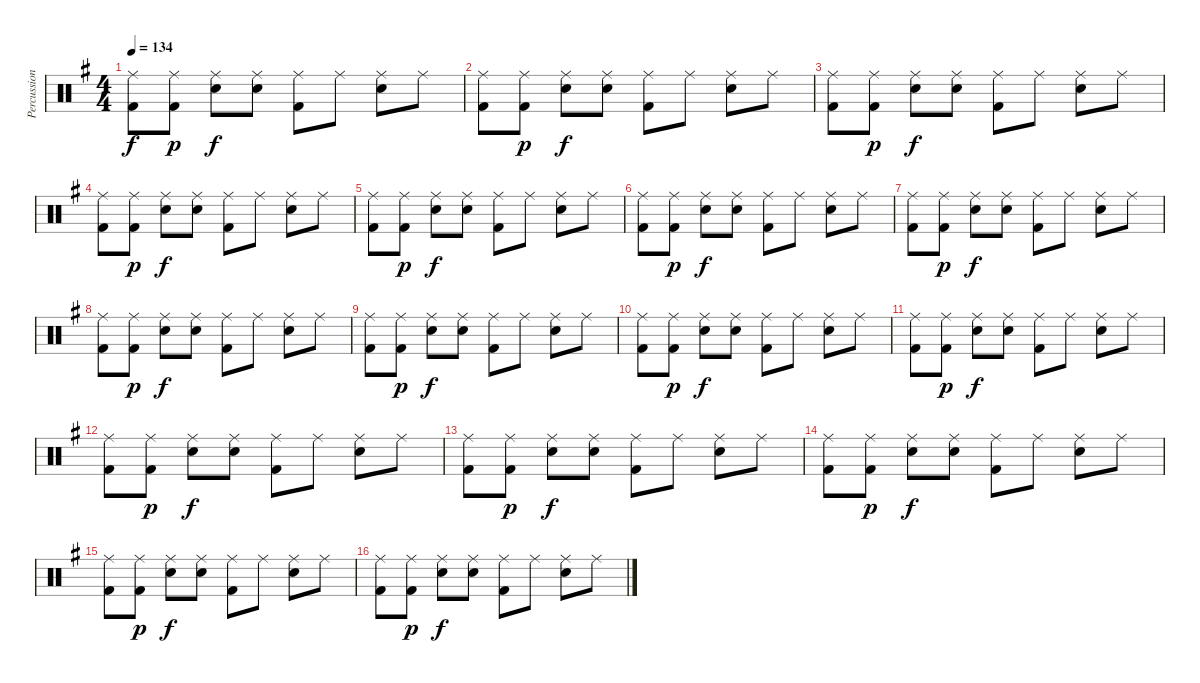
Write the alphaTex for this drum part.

\track ("Percussions" "Percussion") {instrument percussion}
\staff {score}
\articulation defaults
\ts (4 4)
\tempo 134
\clef neutral
\ks g
("Ride (middle)" "Kick (hit) 2").8{dy f} ("Ride (middle)" "Kick (hit) 2").8{dy p} ("Ride (middle)" "Snare (hit) 2").8{dy f} ("Ride (middle)" "Snare (hit) 2").8 ("Ride (middle)" "Kick (hit) 2").8 "Ride (middle)".8 ("Ride (middle)" "Snare (hit) 2").8 "Ride (middle)".8 |
("Ride (middle)" "Kick (hit) 2").8 ("Ride (middle)" "Kick (hit) 2").8{dy p} ("Ride (middle)" "Snare (hit) 2").8{dy f} ("Ride (middle)" "Snare (hit) 2").8 ("Ride (middle)" "Kick (hit) 2").8 "Ride (middle)".8 ("Ride (middle)" "Snare (hit) 2").8 "Ride (middle)".8 |
("Ride (middle)" "Kick (hit) 2").8 ("Ride (middle)" "Kick (hit) 2").8{dy p} ("Ride (middle)" "Snare (hit) 2").8{dy f} ("Ride (middle)" "Snare (hit) 2").8 ("Ride (middle)" "Kick (hit) 2").8 "Ride (middle)".8 ("Ride (middle)" "Snare (hit) 2").8 "Ride (middle)".8 |
("Ride (middle)" "Kick (hit) 2").8 ("Ride (middle)" "Kick (hit) 2").8{dy p} ("Ride (middle)" "Snare (hit) 2").8{dy f} ("Ride (middle)" "Snare (hit) 2").8 ("Ride (middle)" "Kick (hit) 2").8 "Ride (middle)".8 ("Ride (middle)" "Snare (hit) 2").8 "Ride (middle)".8 |
("Ride (middle)" "Kick (hit) 2").8 ("Ride (middle)" "Kick (hit) 2").8{dy p} ("Ride (middle)" "Snare (hit) 2").8{dy f} ("Ride (middle)" "Snare (hit) 2").8 ("Ride (middle)" "Kick (hit) 2").8 "Ride (middle)".8 ("Ride (middle)" "Snare (hit) 2").8 "Ride (middle)".8 |
("Ride (middle)" "Kick (hit) 2").8 ("Ride (middle)" "Kick (hit) 2").8{dy p} ("Ride (middle)" "Snare (hit) 2").8{dy f} ("Ride (middle)" "Snare (hit) 2").8 ("Ride (middle)" "Kick (hit) 2").8 "Ride (middle)".8 ("Ride (middle)" "Snare (hit) 2").8 "Ride (middle)".8 |
("Ride (middle)" "Kick (hit) 2").8 ("Ride (middle)" "Kick (hit) 2").8{dy p} ("Ride (middle)" "Snare (hit) 2").8{dy f} ("Ride (middle)" "Snare (hit) 2").8 ("Ride (middle)" "Kick (hit) 2").8 "Ride (middle)".8 ("Ride (middle)" "Snare (hit) 2").8 "Ride (middle)".8 |
("Ride (middle)" "Kick (hit) 2").8 ("Ride (middle)" "Kick (hit) 2").8{dy p} ("Ride (middle)" "Snare (hit) 2").8{dy f} ("Ride (middle)" "Snare (hit) 2").8 ("Ride (middle)" "Kick (hit) 2").8 "Ride (middle)".8 ("Ride (middle)" "Snare (hit) 2").8 "Ride (middle)".8 |
("Ride (middle)" "Kick (hit) 2").8 ("Ride (middle)" "Kick (hit) 2").8{dy p} ("Ride (middle)" "Snare (hit) 2").8{dy f} ("Ride (middle)" "Snare (hit) 2").8 ("Ride (middle)" "Kick (hit) 2").8 "Ride (middle)".8 ("Ride (middle)" "Snare (hit) 2").8 "Ride (middle)".8 |
("Ride (middle)" "Kick (hit) 2").8 ("Ride (middle)" "Kick (hit) 2").8{dy p} ("Ride (middle)" "Snare (hit) 2").8{dy f} ("Ride (middle)" "Snare (hit) 2").8 ("Ride (middle)" "Kick (hit) 2").8 "Ride (middle)".8 ("Ride (middle)" "Snare (hit) 2").8 "Ride (middle)".8 |
("Ride (middle)" "Kick (hit) 2").8 ("Ride (middle)" "Kick (hit) 2").8{dy p} ("Ride (middle)" "Snare (hit) 2").8{dy f} ("Ride (middle)" "Snare (hit) 2").8 ("Ride (middle)" "Kick (hit) 2").8 "Ride (middle)".8 ("Ride (middle)" "Snare (hit) 2").8 "Ride (middle)".8 |
("Ride (middle)" "Kick (hit) 2").8 ("Ride (middle)" "Kick (hit) 2").8{dy p} ("Ride (middle)" "Snare (hit) 2").8{dy f} ("Ride (middle)" "Snare (hit) 2").8 ("Ride (middle)" "Kick (hit) 2").8 "Ride (middle)".8 ("Ride (middle)" "Snare (hit) 2").8 "Ride (middle)".8 |
("Ride (middle)" "Kick (hit) 2").8 ("Ride (middle)" "Kick (hit) 2").8{dy p} ("Ride (middle)" "Snare (hit) 2").8{dy f} ("Ride (middle)" "Snare (hit) 2").8 ("Ride (middle)" "Kick (hit) 2").8 "Ride (middle)".8 ("Ride (middle)" "Snare (hit) 2").8 "Ride (middle)".8 |
("Ride (middle)" "Kick (hit) 2").8 ("Ride (middle)" "Kick (hit) 2").8{dy p} ("Ride (middle)" "Snare (hit) 2").8{dy f} ("Ride (middle)" "Snare (hit) 2").8 ("Ride (middle)" "Kick (hit) 2").8 "Ride (middle)".8 ("Ride (middle)" "Snare (hit) 2").8 "Ride (middle)".8 |
("Ride (middle)" "Kick (hit) 2").8 ("Ride (middle)" "Kick (hit) 2").8{dy p} ("Ride (middle)" "Snare (hit) 2").8{dy f} ("Ride (middle)" "Snare (hit) 2").8 ("Ride (middle)" "Kick (hit) 2").8 "Ride (middle)".8 ("Ride (middle)" "Snare (hit) 2").8 "Ride (middle)".8 |
("Ride (middle)" "Kick (hit) 2").8 ("Ride (middle)" "Kick (hit) 2").8{dy p} ("Ride (middle)" "Snare (hit) 2").8{dy f} ("Ride (middle)" "Snare (hit) 2").8 ("Ride (middle)" "Kick (hit) 2").8 "Ride (middle)".8 ("Ride (middle)" "Snare (hit) 2").8 "Ride (middle)".8
